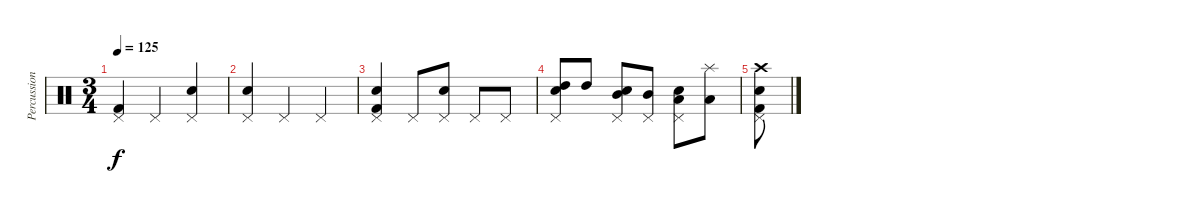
\track ("Percussion" "Percussion") {instrument percussion}
\staff {score}
\articulation defaults
\ts (3 4)
\tempo 125
\clef neutral
\ks c
("Kick (hit) 2" "Pedal Hi-Hat (hit)").4{dy f} "Pedal Hi-Hat (hit)".4 ("Pedal Hi-Hat (hit)" "Snare (hit) 2").4 |
("Pedal Hi-Hat (hit)" "Snare (hit) 2").4 "Pedal Hi-Hat (hit)".4 "Pedal Hi-Hat (hit)".4 |
("Kick (hit) 2" "Pedal Hi-Hat (hit)" "Snare (hit) 2").4 "Pedal Hi-Hat (hit)".8 ("Pedal Hi-Hat (hit)" "Snare (hit) 2").8 "Pedal Hi-Hat (hit)".8 "Pedal Hi-Hat (hit)".8 |
("Pedal Hi-Hat (hit)" "Snare (hit) 2" "High Tom (hit)").8 "High Tom (hit)".8 ("Pedal Hi-Hat (hit)" "Snare (hit) 2" "Mid Tom (hit)").8 ("Pedal Hi-Hat (hit)" "Mid Tom (hit)").8 ("Pedal Hi-Hat (hit)" "Low Tom (hit)" "Snare (hit) 2").8 ("Low Tom (hit)" "Splash (hit)").8 |
("Kick (hit) 2" "Pedal Hi-Hat (hit)" "Electric Snare (hit)" "Crash high (hit)").8
